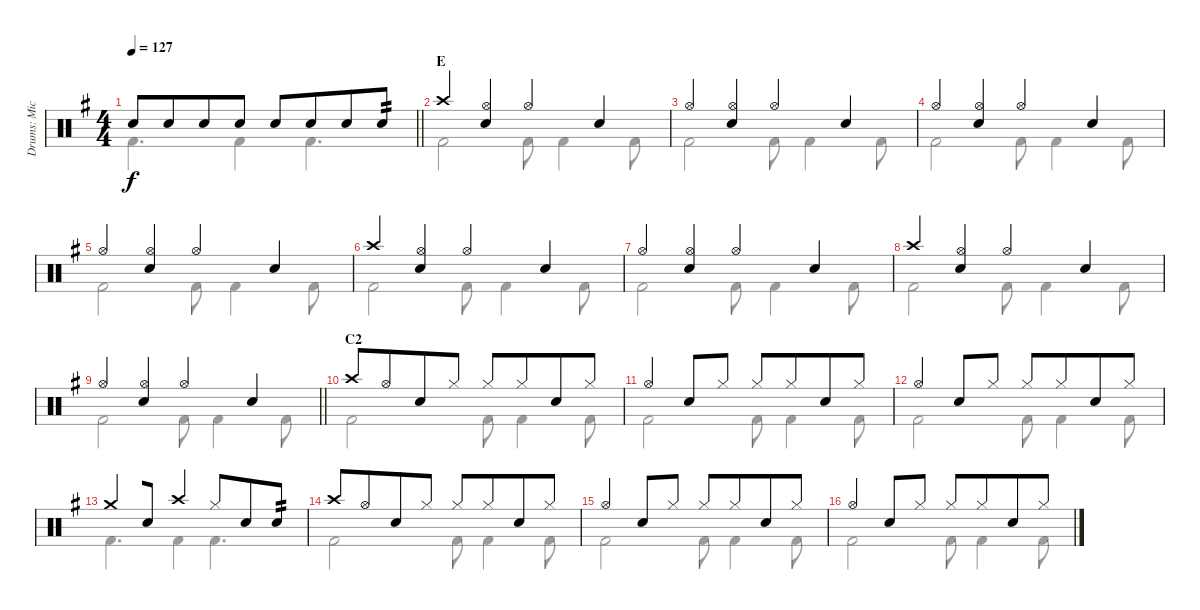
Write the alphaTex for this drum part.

\track ("Drums: Mick" "Drums: Mic") {instrument percussion}
\staff {score}
\articulation defaults
\voice
\ts (4 4)
\tempo 127
\clef neutral
\barLineRight lightlight
\ks g "Electric Snare (hit)".8{dy f} "Electric Snare (hit)".8{beam merge} "Electric Snare (hit)".8 "Electric Snare (hit)".8 "Electric Snare (hit)".8{beam merge} "Electric Snare (hit)".8{beam merge} "Electric Snare (hit)".8 "Electric Snare (hit)".8{tp 2}
|
\section ("" "E")
"Crash high (hit)".4 ("Hi-Hat (open)" "Electric Snare (hit)").4 "Hi-Hat (open)".4 "Electric Snare (hit)".4 |
"Hi-Hat (open)".4 ("Hi-Hat (open)" "Electric Snare (hit)").4 "Hi-Hat (open)".4 "Electric Snare (hit)".4 |
"Hi-Hat (open)".4 ("Hi-Hat (open)" "Electric Snare (hit)").4 "Hi-Hat (open)".4 "Electric Snare (hit)".4 |
"Hi-Hat (open)".4 ("Hi-Hat (open)" "Electric Snare (hit)").4 "Hi-Hat (open)".4 "Electric Snare (hit)".4 |
"Crash high (hit)".4 ("Hi-Hat (open)" "Electric Snare (hit)").4 "Hi-Hat (open)".4 "Electric Snare (hit)".4 |
"Hi-Hat (open)".4 ("Hi-Hat (open)" "Electric Snare (hit)").4 "Hi-Hat (open)".4 "Electric Snare (hit)".4 |
"Crash high (hit)".4 ("Hi-Hat (open)" "Electric Snare (hit)").4 "Hi-Hat (open)".4 "Electric Snare (hit)".4 |
\barLineRight lightlight "Hi-Hat (open)".4
("Hi-Hat (open)" "Electric Snare (hit)").4 "Hi-Hat (open)".4 "Electric Snare (hit)".4 |
\section ("" "C2")
"Crash high (hit)".8 "Hi-Hat (open)".8{beam merge} "Electric Snare (hit)".8 "Hi-Hat (closed)".8 "Hi-Hat (closed)".8 "Hi-Hat (closed)".8{beam merge} "Electric Snare (hit)".8 "Hi-Hat (closed)".8 |
"Hi-Hat (open)".4{beam merge} "Electric Snare (hit)".8 "Hi-Hat (closed)".8 "Hi-Hat (closed)".8 "Hi-Hat (closed)".8{beam merge} "Electric Snare (hit)".8 "Hi-Hat (closed)".8 |
"Hi-Hat (open)".4{beam merge} "Electric Snare (hit)".8 "Hi-Hat (closed)".8 "Hi-Hat (closed)".8 "Hi-Hat (closed)".8{beam merge} "Electric Snare (hit)".8 "Hi-Hat (closed)".8 |
"Crash medium (hit)".4{beam merge} "Electric Snare (hit)".8 "Crash high (hit)".4 "Hi-Hat (closed)".8{beam merge} "Electric Snare (hit)".8 "Electric Snare (hit)".8{tp 2} |
"Crash high (hit)".8 "Hi-Hat (open)".8{beam merge} "Electric Snare (hit)".8 "Hi-Hat (closed)".8 "Hi-Hat (closed)".8 "Hi-Hat (closed)".8{beam merge} "Electric Snare (hit)".8 "Hi-Hat (closed)".8 |
"Hi-Hat (open)".4{beam merge} "Electric Snare (hit)".8 "Hi-Hat (closed)".8 "Hi-Hat (closed)".8 "Hi-Hat (closed)".8{beam merge} "Electric Snare (hit)".8 "Hi-Hat (closed)".8 |
"Hi-Hat (open)".4{beam merge} "Electric Snare (hit)".8 "Hi-Hat (closed)".8 "Hi-Hat (closed)".8 "Hi-Hat (closed)".8{beam merge} "Electric Snare (hit)".8 "Hi-Hat (closed)".8
\voice
\clef neutral
\ottava regular
\simile none
\barLineRight lightlight
\ks g "Kick (hit) 2".4{d dy f} "Kick (hit) 2".4 "Kick (hit) 2".4{d}
|
"Kick (hit) 2".2 "Kick (hit) 2".8 "Kick (hit) 2".4 "Kick (hit) 2".8 |
"Kick (hit) 2".2 "Kick (hit) 2".8 "Kick (hit) 2".4 "Kick (hit) 2".8 |
"Kick (hit) 2".2 "Kick (hit) 2".8 "Kick (hit) 2".4 "Kick (hit) 2".8 |
"Kick (hit) 2".2 "Kick (hit) 2".8 "Kick (hit) 2".4 "Kick (hit) 2".8 |
"Kick (hit) 2".2 "Kick (hit) 2".8 "Kick (hit) 2".4 "Kick (hit) 2".8 |
"Kick (hit) 2".2 "Kick (hit) 2".8 "Kick (hit) 2".4 "Kick (hit) 2".8 |
"Kick (hit) 2".2 "Kick (hit) 2".8 "Kick (hit) 2".4 "Kick (hit) 2".8 |
\barLineRight lightlight "Kick (hit) 2".2 "Kick (hit) 2".8 "Kick (hit) 2".4 "Kick (hit) 2".8
|
"Kick (hit) 2".2 "Kick (hit) 2".8 "Kick (hit) 2".4 "Kick (hit) 2".8 |
"Kick (hit) 2".2 "Kick (hit) 2".8 "Kick (hit) 2".4 "Kick (hit) 2".8 |
"Kick (hit) 2".2 "Kick (hit) 2".8 "Kick (hit) 2".4 "Kick (hit) 2".8 |
"Kick (hit) 2".4{d} "Kick (hit) 2".4 "Kick (hit) 2".4{d} |
"Kick (hit) 2".2 "Kick (hit) 2".8 "Kick (hit) 2".4 "Kick (hit) 2".8 |
"Kick (hit) 2".2 "Kick (hit) 2".8 "Kick (hit) 2".4 "Kick (hit) 2".8 |
"Kick (hit) 2".2 "Kick (hit) 2".8 "Kick (hit) 2".4 "Kick (hit) 2".8
